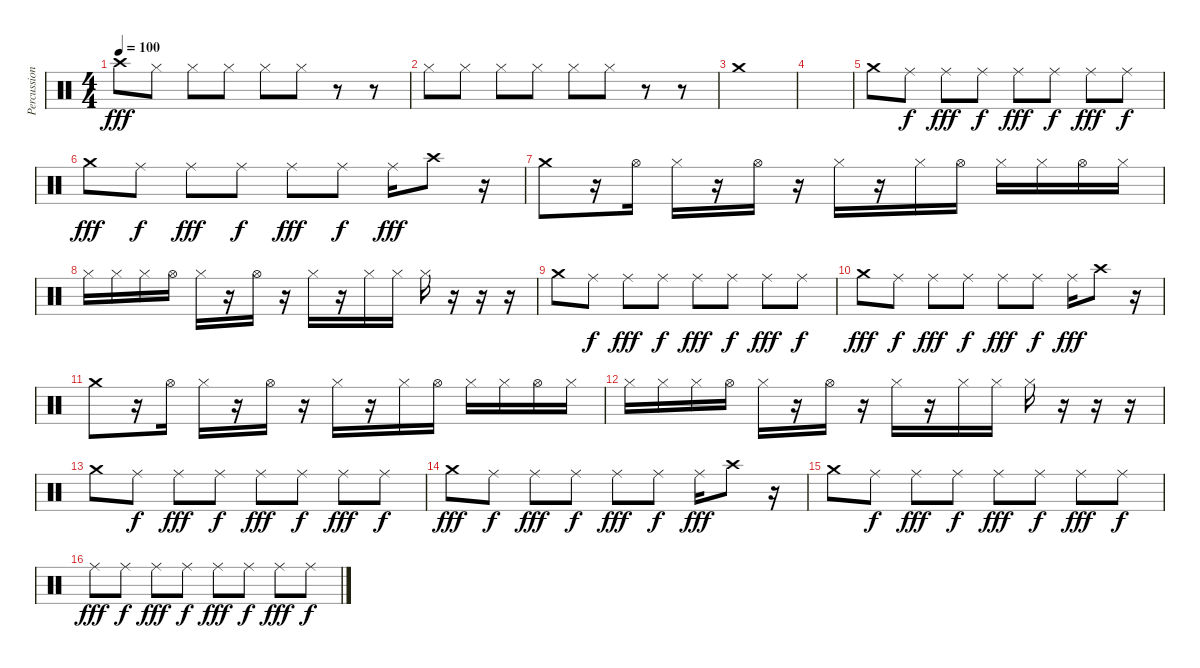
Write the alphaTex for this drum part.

\track ("Percussion" "Percussion") {instrument percussion}
\staff {score}
\articulation defaults
\ts (4 4)
\tempo 100
\clef neutral
\ks c "Crash high (hit)".8{dy fff} "Hi-Hat (closed)".8 "Hi-Hat (closed)".8 "Hi-Hat (closed)".8 "Hi-Hat (closed)".8 "Hi-Hat (closed)".8
r.8 r.8 |
"Hi-Hat (closed)".8 "Hi-Hat (closed)".8 "Hi-Hat (closed)".8 "Hi-Hat (closed)".8 "Hi-Hat (closed)".8 "Hi-Hat (closed)".8 r.8 r.8 |
"Crash medium (hit)".1 |
|
"Crash medium (hit)".8 "Ride (middle)".8{dy f} "Ride (middle)".8{dy fff} "Ride (middle)".8{dy f} "Ride (middle)".8{dy fff} "Ride (middle)".8{dy f} "Ride (middle)".8{dy fff} "Ride (middle)".8{dy f} |
"Crash medium (hit)".8{dy fff} "Ride (middle)".8{dy f} "Ride (middle)".8{dy fff} "Ride (middle)".8{dy f} "Ride (middle)".8{dy fff} "Ride (middle)".8{dy f} "Ride (middle)".16{dy fff} "Crash high (hit)".8 r.16 |
"Crash medium (hit)".8 r.16 "Hi-Hat (open)".16 "Hi-Hat (closed)".16 r.16 "Hi-Hat (open)".16 r.16 "Hi-Hat (closed)".16 r.16 "Hi-Hat (closed)".16 "Hi-Hat (open)".16 "Hi-Hat (closed)".16 "Hi-Hat (closed)".16 "Hi-Hat (open)".16 "Hi-Hat (closed)".16 |
"Hi-Hat (closed)".16 "Hi-Hat (closed)".16 "Hi-Hat (closed)".16 "Hi-Hat (open)".16 "Hi-Hat (closed)".16 r.16 "Hi-Hat (open)".16 r.16 "Hi-Hat (closed)".16 r.16 "Hi-Hat (closed)".16 "Hi-Hat (closed)".16 "Hi-Hat (closed)".16 r.16 r.16 r.16 |
"Crash medium (hit)".8 "Ride (middle)".8{dy f} "Ride (middle)".8{dy fff} "Ride (middle)".8{dy f} "Ride (middle)".8{dy fff} "Ride (middle)".8{dy f} "Ride (middle)".8{dy fff} "Ride (middle)".8{dy f} |
"Crash medium (hit)".8{dy fff} "Ride (middle)".8{dy f} "Ride (middle)".8{dy fff} "Ride (middle)".8{dy f} "Ride (middle)".8{dy fff} "Ride (middle)".8{dy f} "Ride (middle)".16{dy fff} "Crash high (hit)".8 r.16 |
"Crash medium (hit)".8 r.16 "Hi-Hat (open)".16 "Hi-Hat (closed)".16 r.16 "Hi-Hat (open)".16 r.16 "Hi-Hat (closed)".16 r.16 "Hi-Hat (closed)".16 "Hi-Hat (open)".16 "Hi-Hat (closed)".16 "Hi-Hat (closed)".16 "Hi-Hat (open)".16 "Hi-Hat (closed)".16 |
"Hi-Hat (closed)".16 "Hi-Hat (closed)".16 "Hi-Hat (closed)".16 "Hi-Hat (open)".16 "Hi-Hat (closed)".16 r.16 "Hi-Hat (open)".16 r.16 "Hi-Hat (closed)".16 r.16 "Hi-Hat (closed)".16 "Hi-Hat (closed)".16 "Hi-Hat (closed)".16 r.16 r.16 r.16 |
"Crash medium (hit)".8 "Ride (middle)".8{dy f} "Ride (middle)".8{dy fff} "Ride (middle)".8{dy f} "Ride (middle)".8{dy fff} "Ride (middle)".8{dy f} "Ride (middle)".8{dy fff} "Ride (middle)".8{dy f} |
"Crash medium (hit)".8{dy fff} "Ride (middle)".8{dy f} "Ride (middle)".8{dy fff} "Ride (middle)".8{dy f} "Ride (middle)".8{dy fff} "Ride (middle)".8{dy f} "Ride (middle)".16{dy fff} "Crash high (hit)".8 r.16 |
"Crash medium (hit)".8 "Ride (middle)".8{dy f} "Ride (middle)".8{dy fff} "Ride (middle)".8{dy f} "Ride (middle)".8{dy fff} "Ride (middle)".8{dy f} "Ride (middle)".8{dy fff} "Ride (middle)".8{dy f} |
"Ride (middle)".8{dy fff} "Ride (middle)".8{dy f} "Ride (middle)".8{dy fff} "Ride (middle)".8{dy f} "Ride (middle)".8{dy fff} "Ride (middle)".8{dy f} "Ride (middle)".8{dy fff} "Ride (middle)".8{dy f}
